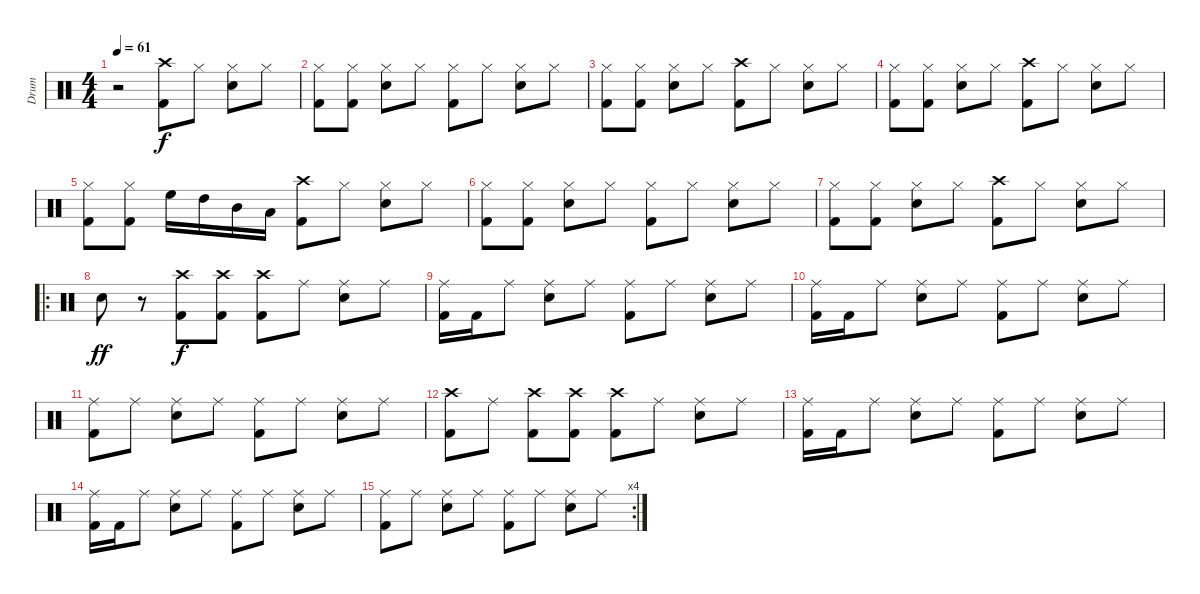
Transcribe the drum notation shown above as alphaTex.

\track ("Drum" "Drum") {instrument percussion}
\staff {score}
\articulation defaults
\ts (4 4)
\tempo 61
\clef neutral
\ks c
r.2{dy ff} ("Crash high (hit)" "Kick (hit) 2").8{dy f} "Hi-Hat (closed)".8 ("Hi-Hat (closed)" "Snare (hit) 2").8 "Hi-Hat (closed)".8 |
("Hi-Hat (closed)" "Kick (hit) 2").8 ("Hi-Hat (closed)" "Kick (hit) 2").8 ("Hi-Hat (closed)" "Snare (hit) 2").8 "Hi-Hat (closed)".8 ("Hi-Hat (closed)" "Kick (hit) 2").8 "Hi-Hat (closed)".8 ("Hi-Hat (closed)" "Snare (hit) 2").8 "Hi-Hat (closed)".8 |
("Hi-Hat (closed)" "Kick (hit) 2").8 ("Hi-Hat (closed)" "Kick (hit) 2").8 ("Hi-Hat (closed)" "Snare (hit) 2").8 "Hi-Hat (closed)".8 ("Crash high (hit)" "Kick (hit) 2").8 "Hi-Hat (closed)".8 ("Hi-Hat (closed)" "Snare (hit) 2").8 "Hi-Hat (closed)".8 |
("Hi-Hat (closed)" "Kick (hit) 2").8 ("Hi-Hat (closed)" "Kick (hit) 2").8 ("Hi-Hat (closed)" "Snare (hit) 2").8 "Hi-Hat (closed)".8 ("Crash high (hit)" "Kick (hit) 2").8 "Hi-Hat (closed)".8 ("Hi-Hat (closed)" "Snare (hit) 2").8 "Hi-Hat (closed)".8 |
("Hi-Hat (closed)" "Kick (hit) 2").8 ("Hi-Hat (closed)" "Kick (hit) 2").8 "High Floor Tom (hit)".16 "High Tom (hit)".16 "Mid Tom (hit)".16 "Low Tom (hit)".16 ("Crash high (hit)" "Kick (hit) 2").8 "Hi-Hat (closed)".8 ("Hi-Hat (closed)" "Snare (hit) 2").8 "Hi-Hat (closed)".8 |
("Hi-Hat (closed)" "Kick (hit) 2").8 ("Hi-Hat (closed)" "Kick (hit) 2").8 ("Hi-Hat (closed)" "Snare (hit) 2").8 "Hi-Hat (closed)".8 ("Hi-Hat (closed)" "Kick (hit) 2").8 "Hi-Hat (closed)".8 ("Hi-Hat (closed)" "Snare (hit) 2").8 "Hi-Hat (closed)".8 |
("Hi-Hat (closed)" "Kick (hit) 2").8 ("Hi-Hat (closed)" "Kick (hit) 2").8 ("Hi-Hat (closed)" "Snare (hit) 2").8 "Hi-Hat (closed)".8 ("Crash high (hit)" "Kick (hit) 2").8 "Hi-Hat (closed)".8 ("Hi-Hat (closed)" "Snare (hit) 2").8 "Hi-Hat (closed)".8 |
\ro "Snare (hit) 2".8{dy ff}
r.8 ("Crash high (hit)" "Kick (hit) 2").8{dy f} ("Crash high (hit)" "Kick (hit) 2").8 ("Crash high (hit)" "Kick (hit) 2").8 "Ride (middle)".8 ("Ride (middle)" "Snare (hit) 2").8 "Ride (middle)".8 |
("Ride (middle)" "Kick (hit) 2").16 "Kick (hit) 2".16 "Ride (middle)".8 ("Ride (middle)" "Snare (hit) 2").8 "Ride (middle)".8 ("Ride (middle)" "Kick (hit) 2").8 "Ride (middle)".8 ("Ride (middle)" "Snare (hit) 2").8 "Ride (middle)".8 |
("Ride (middle)" "Kick (hit) 2").16 "Kick (hit) 2".16 "Ride (middle)".8 ("Ride (middle)" "Snare (hit) 2").8 "Ride (middle)".8 ("Ride (middle)" "Kick (hit) 2").8 "Ride (middle)".8 ("Ride (middle)" "Snare (hit) 2").8 "Ride (middle)".8 |
("Ride (middle)" "Kick (hit) 2").8 "Ride (middle)".8 ("Ride (middle)" "Snare (hit) 2").8 "Ride (middle)".8 ("Ride (middle)" "Kick (hit) 2").8 "Ride (middle)".8 ("Ride (middle)" "Snare (hit) 2").8 "Ride (middle)".8 |
("Crash high (hit)" "Kick (hit) 2").8 "Ride (middle)".8 ("Crash high (hit)" "Kick (hit) 2").8 ("Crash high (hit)" "Kick (hit) 2").8 ("Crash high (hit)" "Kick (hit) 2").8 "Ride (middle)".8 ("Ride (middle)" "Snare (hit) 2").8 "Ride (middle)".8 |
("Ride (middle)" "Kick (hit) 2").16 "Kick (hit) 2".16 "Ride (middle)".8 ("Ride (middle)" "Snare (hit) 2").8 "Ride (middle)".8 ("Ride (middle)" "Kick (hit) 2").8 "Ride (middle)".8 ("Ride (middle)" "Snare (hit) 2").8 "Ride (middle)".8 |
("Ride (middle)" "Kick (hit) 2").16 "Kick (hit) 2".16 "Ride (middle)".8 ("Ride (middle)" "Snare (hit) 2").8 "Ride (middle)".8 ("Ride (middle)" "Kick (hit) 2").8 "Ride (middle)".8 ("Ride (middle)" "Snare (hit) 2").8 "Ride (middle)".8 |
\rc 4
("Ride (middle)" "Kick (hit) 2").8 "Ride (middle)".8 ("Ride (middle)" "Snare (hit) 2").8 "Ride (middle)".8 ("Ride (middle)" "Kick (hit) 2").8 "Ride (middle)".8 ("Ride (middle)" "Snare (hit) 2").8 "Ride (middle)".8
